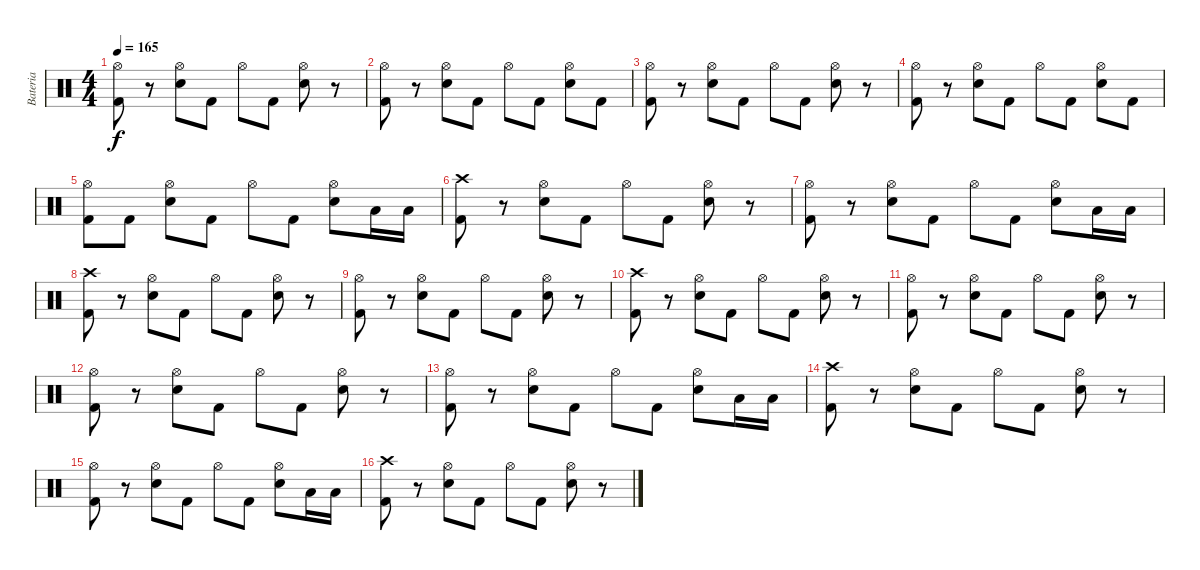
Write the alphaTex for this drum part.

\track ("Bateria" "Bateria") {instrument percussion}
\staff {score}
\articulation defaults
\ts (4 4)
\tempo 165
\clef neutral
\ks c
("Hi-Hat (open)" "Kick (hit) 2").8{dy f} r.8 ("Hi-Hat (open)" "Snare (hit) 2").8 "Kick (hit) 2".8 "Hi-Hat (open)".8 "Kick (hit) 2".8 ("Hi-Hat (open)" "Snare (hit) 2").8 r.8 |
("Hi-Hat (open)" "Kick (hit) 2").8 r.8 ("Hi-Hat (open)" "Snare (hit) 2").8 "Kick (hit) 2".8 "Hi-Hat (open)".8 "Kick (hit) 2".8 ("Hi-Hat (open)" "Snare (hit) 2").8 "Kick (hit) 2".8 |
("Hi-Hat (open)" "Kick (hit) 2").8 r.8 ("Hi-Hat (open)" "Snare (hit) 2").8 "Kick (hit) 2".8 "Hi-Hat (open)".8 "Kick (hit) 2".8 ("Hi-Hat (open)" "Snare (hit) 2").8 r.8 |
("Hi-Hat (open)" "Kick (hit) 2").8 r.8 ("Hi-Hat (open)" "Snare (hit) 2").8 "Kick (hit) 2".8 "Hi-Hat (open)".8 "Kick (hit) 2".8 ("Hi-Hat (open)" "Snare (hit) 2").8 "Kick (hit) 2".8 |
("Hi-Hat (open)" "Kick (hit) 2").8 "Kick (hit) 2".8 ("Hi-Hat (open)" "Snare (hit) 2").8 "Kick (hit) 2".8 "Hi-Hat (open)".8 "Kick (hit) 2".8 ("Hi-Hat (open)" "Snare (hit) 2").8 "Low Tom (hit)".16 "Low Tom (hit)".16 |
("Crash high (hit)" "Kick (hit) 2").8 r.8 ("Hi-Hat (open)" "Snare (hit) 2").8 "Kick (hit) 2".8 "Hi-Hat (open)".8 "Kick (hit) 2".8 ("Hi-Hat (open)" "Snare (hit) 2").8 r.8 |
("Hi-Hat (open)" "Kick (hit) 2").8 r.8 ("Hi-Hat (open)" "Snare (hit) 2").8 "Kick (hit) 2".8 "Hi-Hat (open)".8 "Kick (hit) 2".8 ("Hi-Hat (open)" "Snare (hit) 2").8 "Low Tom (hit)".16 "Low Tom (hit)".16 |
("Crash high (hit)" "Kick (hit) 2").8 r.8 ("Hi-Hat (open)" "Snare (hit) 2").8 "Kick (hit) 2".8 "Hi-Hat (open)".8 "Kick (hit) 2".8 ("Hi-Hat (open)" "Snare (hit) 2").8 r.8 |
("Hi-Hat (open)" "Kick (hit) 2").8 r.8 ("Hi-Hat (open)" "Snare (hit) 2").8 "Kick (hit) 2".8 "Hi-Hat (open)".8 "Kick (hit) 2".8 ("Hi-Hat (open)" "Snare (hit) 2").8 r.8 |
("Crash high (hit)" "Kick (hit) 2").8 r.8 ("Hi-Hat (open)" "Snare (hit) 2").8 "Kick (hit) 2".8 "Hi-Hat (open)".8 "Kick (hit) 2".8 ("Hi-Hat (open)" "Snare (hit) 2").8 r.8 |
("Hi-Hat (open)" "Kick (hit) 2").8 r.8 ("Hi-Hat (open)" "Snare (hit) 2").8 "Kick (hit) 2".8 "Hi-Hat (open)".8 "Kick (hit) 2".8 ("Hi-Hat (open)" "Snare (hit) 2").8 r.8 |
("Hi-Hat (open)" "Kick (hit) 2").8 r.8 ("Hi-Hat (open)" "Snare (hit) 2").8 "Kick (hit) 2".8 "Hi-Hat (open)".8 "Kick (hit) 2".8 ("Hi-Hat (open)" "Snare (hit) 2").8 r.8 |
("Hi-Hat (open)" "Kick (hit) 2").8 r.8 ("Hi-Hat (open)" "Snare (hit) 2").8 "Kick (hit) 2".8 "Hi-Hat (open)".8 "Kick (hit) 2".8 ("Hi-Hat (open)" "Snare (hit) 2").8 "Low Tom (hit)".16 "Low Tom (hit)".16 |
("Crash high (hit)" "Kick (hit) 2").8 r.8 ("Hi-Hat (open)" "Snare (hit) 2").8 "Kick (hit) 2".8 "Hi-Hat (open)".8 "Kick (hit) 2".8 ("Hi-Hat (open)" "Snare (hit) 2").8 r.8 |
("Hi-Hat (open)" "Kick (hit) 2").8 r.8 ("Hi-Hat (open)" "Snare (hit) 2").8 "Kick (hit) 2".8 "Hi-Hat (open)".8 "Kick (hit) 2".8 ("Hi-Hat (open)" "Snare (hit) 2").8 "Low Tom (hit)".16 "Low Tom (hit)".16 |
("Crash high (hit)" "Kick (hit) 2").8 r.8 ("Hi-Hat (open)" "Snare (hit) 2").8 "Kick (hit) 2".8 "Hi-Hat (open)".8 "Kick (hit) 2".8 ("Hi-Hat (open)" "Snare (hit) 2").8 r.8
